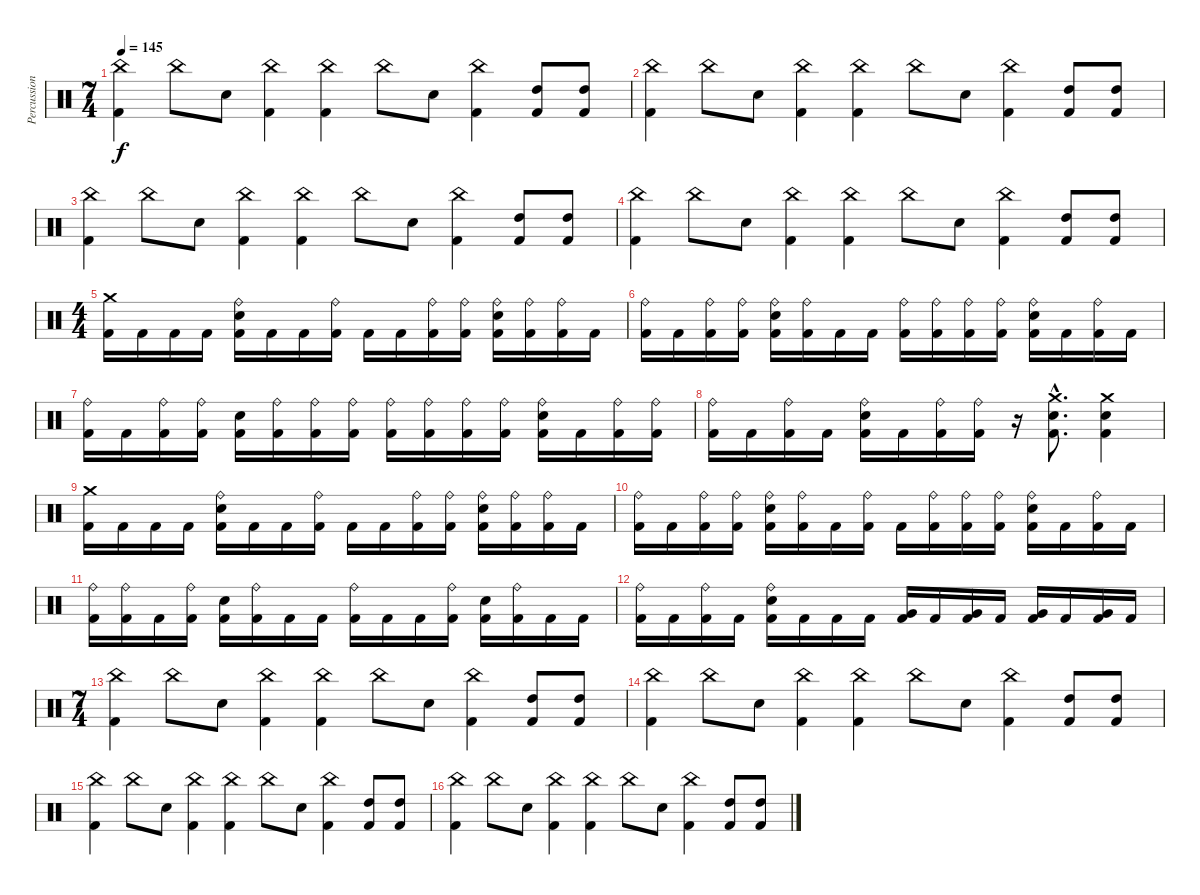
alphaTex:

\track ("Percussion" "Percussion") {instrument percussion}
\staff {score}
\articulation defaults
\ts (7 4)
\tempo 145
\clef neutral
\ks c
("China (hit)" "Kick (hit) 2").4{dy f} "China (hit)".8 "Electric Snare (hit)".8 ("China (hit)" "Kick (hit) 2").4 ("China (hit)" "Kick (hit) 2").4 "China (hit)".8 "Electric Snare (hit)".8 ("China (hit)" "Kick (hit) 2").4 ("High Tom (hit)" "Kick (hit) 2").8 ("High Tom (hit)" "Kick (hit) 2").8 |
("China (hit)" "Kick (hit) 2").4 "China (hit)".8 "Electric Snare (hit)".8 ("China (hit)" "Kick (hit) 2").4 ("China (hit)" "Kick (hit) 2").4 "China (hit)".8 "Electric Snare (hit)".8 ("China (hit)" "Kick (hit) 2").4 ("High Tom (hit)" "Kick (hit) 2").8 ("High Tom (hit)" "Kick (hit) 2").8 |
("China (hit)" "Kick (hit) 2").4 "China (hit)".8 "Electric Snare (hit)".8 ("China (hit)" "Kick (hit) 2").4 ("China (hit)" "Kick (hit) 2").4 "China (hit)".8 "Electric Snare (hit)".8 ("China (hit)" "Kick (hit) 2").4 ("High Tom (hit)" "Kick (hit) 2").8 ("High Tom (hit)" "Kick (hit) 2").8 |
("China (hit)" "Kick (hit) 2").4 "China (hit)".8 "Electric Snare (hit)".8 ("China (hit)" "Kick (hit) 2").4 ("China (hit)" "Kick (hit) 2").4 "China (hit)".8 "Electric Snare (hit)".8 ("China (hit)" "Kick (hit) 2").4 ("High Tom (hit)" "Kick (hit) 2").8 ("High Tom (hit)" "Kick (hit) 2").8 |
\ts (4 4)
("Crash medium (hit)" "Kick (hit) 2").16 "Kick (hit) 2".16 "Kick (hit) 2".16 "Kick (hit) 2".16 ("Ride (bell)" "Electric Snare (hit)" "Kick (hit) 2").16 "Kick (hit) 2".16 "Kick (hit) 2".16 ("Ride (bell)" "Kick (hit) 2").16 "Kick (hit) 2".16 "Kick (hit) 2".16 ("Ride (bell)" "Kick (hit) 2").16 ("Ride (bell)" "Kick (hit) 2").16 ("Ride (bell)" "Electric Snare (hit)" "Kick (hit) 2").16 ("Ride (bell)" "Kick (hit) 2").16 ("Ride (bell)" "Kick (hit) 2").16 "Kick (hit) 2".16 |
("Ride (bell)" "Kick (hit) 2").16 "Kick (hit) 2".16 ("Ride (bell)" "Kick (hit) 2").16 ("Ride (bell)" "Kick (hit) 2").16 ("Ride (bell)" "Electric Snare (hit)" "Kick (hit) 2").16 ("Ride (bell)" "Kick (hit) 2").16 "Kick (hit) 2".16 "Kick (hit) 2".16 ("Ride (bell)" "Kick (hit) 2").16 ("Ride (bell)" "Kick (hit) 2").16 ("Ride (bell)" "Kick (hit) 2").16 ("Ride (bell)" "Kick (hit) 2").16 ("Ride (bell)" "Electric Snare (hit)" "Kick (hit) 2").16 "Kick (hit) 2".16 ("Ride (bell)" "Kick (hit) 2").16 "Kick (hit) 2".16 |
("Ride (bell)" "Kick (hit) 2").16 "Kick (hit) 2".16 ("Ride (bell)" "Kick (hit) 2").16 ("Ride (bell)" "Kick (hit) 2").16 ("Electric Snare (hit)" "Kick (hit) 2").16 ("Ride (bell)" "Kick (hit) 2").16 ("Ride (bell)" "Kick (hit) 2").16 ("Ride (bell)" "Kick (hit) 2").16 ("Ride (bell)" "Kick (hit) 2").16 ("Ride (bell)" "Kick (hit) 2").16 ("Ride (bell)" "Kick (hit) 2").16 ("Ride (bell)" "Kick (hit) 2").16 ("Ride (bell)" "Electric Snare (hit)" "Kick (hit) 2").16 "Kick (hit) 2".16 ("Ride (bell)" "Kick (hit) 2").16 ("Ride (bell)" "Kick (hit) 2").16 |
("Ride (bell)" "Kick (hit) 2").16 "Kick (hit) 2".16 ("Ride (bell)" "Kick (hit) 2").16 "Kick (hit) 2".16 ("Ride (bell)" "Electric Snare (hit)" "Kick (hit) 2").16 "Kick (hit) 2".16 ("Ride (bell)" "Kick (hit) 2").16 ("Ride (bell)" "Kick (hit) 2").16 r.16 ("Crash medium (hit)"{hac} "Electric Snare (hit)"{hac} "Kick (hit) 2"{hac}).8{d} ("Crash medium (hit)" "Electric Snare (hit)" "Kick (hit) 2").4 |
("Crash medium (hit)" "Kick (hit) 2").16 "Kick (hit) 2".16 "Kick (hit) 2".16 "Kick (hit) 2".16 ("Ride (bell)" "Electric Snare (hit)" "Kick (hit) 2").16 "Kick (hit) 2".16 "Kick (hit) 2".16 ("Ride (bell)" "Kick (hit) 2").16 "Kick (hit) 2".16 "Kick (hit) 2".16 ("Ride (bell)" "Kick (hit) 2").16 ("Ride (bell)" "Kick (hit) 2").16 ("Ride (bell)" "Electric Snare (hit)" "Kick (hit) 2").16 ("Ride (bell)" "Kick (hit) 2").16 ("Ride (bell)" "Kick (hit) 2").16 "Kick (hit) 2".16 |
("Ride (bell)" "Kick (hit) 2").16 "Kick (hit) 2".16 ("Ride (bell)" "Kick (hit) 2").16 ("Ride (bell)" "Kick (hit) 2").16 ("Ride (bell)" "Electric Snare (hit)" "Kick (hit) 2").16 ("Ride (bell)" "Kick (hit) 2").16 "Kick (hit) 2".16 ("Ride (bell)" "Kick (hit) 2").16 "Kick (hit) 2".16 ("Ride (bell)" "Kick (hit) 2").16 ("Ride (bell)" "Kick (hit) 2").16 ("Ride (bell)" "Kick (hit) 2").16 ("Ride (bell)" "Electric Snare (hit)" "Kick (hit) 2").16 "Kick (hit) 2".16 ("Ride (bell)" "Kick (hit) 2").16 "Kick (hit) 2".16 |
("Ride (bell)" "Kick (hit) 2").16 ("Ride (bell)" "Kick (hit) 2").16 "Kick (hit) 2".16 ("Ride (bell)" "Kick (hit) 2").16 ("Electric Snare (hit)" "Kick (hit) 2").16 ("Ride (bell)" "Kick (hit) 2").16 "Kick (hit) 2".16 "Kick (hit) 2".16 ("Ride (bell)" "Kick (hit) 2").16 "Kick (hit) 2".16 "Kick (hit) 2".16 ("Ride (bell)" "Kick (hit) 2").16 ("Electric Snare (hit)" "Kick (hit) 2").16 ("Ride (bell)" "Kick (hit) 2").16 "Kick (hit) 2".16 "Kick (hit) 2".16 |
("Ride (bell)" "Kick (hit) 2").16 "Kick (hit) 2".16 ("Ride (bell)" "Kick (hit) 2").16 "Kick (hit) 2".16 ("Ride (bell)" "Electric Snare (hit)" "Kick (hit) 2").16 "Kick (hit) 2".16 "Kick (hit) 2".16 "Kick (hit) 2".16 ("Very Low Tom (hit)" "Kick (hit) 2").16 "Kick (hit) 2".16 ("Very Low Tom (hit)" "Kick (hit) 2").16 "Kick (hit) 2".16 ("Very Low Tom (hit)" "Kick (hit) 2").16 "Kick (hit) 2".16 ("Very Low Tom (hit)" "Kick (hit) 2").16 "Kick (hit) 2".16 |
\ts (7 4)
("China (hit)" "Kick (hit) 2").4 "China (hit)".8 "Electric Snare (hit)".8 ("China (hit)" "Kick (hit) 2").4 ("China (hit)" "Kick (hit) 2").4 "China (hit)".8 "Electric Snare (hit)".8 ("China (hit)" "Kick (hit) 2").4 ("High Tom (hit)" "Kick (hit) 2").8 ("High Tom (hit)" "Kick (hit) 2").8 |
("China (hit)" "Kick (hit) 2").4 "China (hit)".8 "Electric Snare (hit)".8 ("China (hit)" "Kick (hit) 2").4 ("China (hit)" "Kick (hit) 2").4 "China (hit)".8 "Electric Snare (hit)".8 ("China (hit)" "Kick (hit) 2").4 ("High Tom (hit)" "Kick (hit) 2").8 ("High Tom (hit)" "Kick (hit) 2").8 |
("China (hit)" "Kick (hit) 2").4 "China (hit)".8 "Electric Snare (hit)".8 ("China (hit)" "Kick (hit) 2").4 ("China (hit)" "Kick (hit) 2").4 "China (hit)".8 "Electric Snare (hit)".8 ("China (hit)" "Kick (hit) 2").4 ("High Tom (hit)" "Kick (hit) 2").8 ("High Tom (hit)" "Kick (hit) 2").8 |
("China (hit)" "Kick (hit) 2").4 "China (hit)".8 "Electric Snare (hit)".8 ("China (hit)" "Kick (hit) 2").4 ("China (hit)" "Kick (hit) 2").4 "China (hit)".8 "Electric Snare (hit)".8 ("China (hit)" "Kick (hit) 2").4 ("High Tom (hit)" "Kick (hit) 2").8 ("High Tom (hit)" "Kick (hit) 2").8
